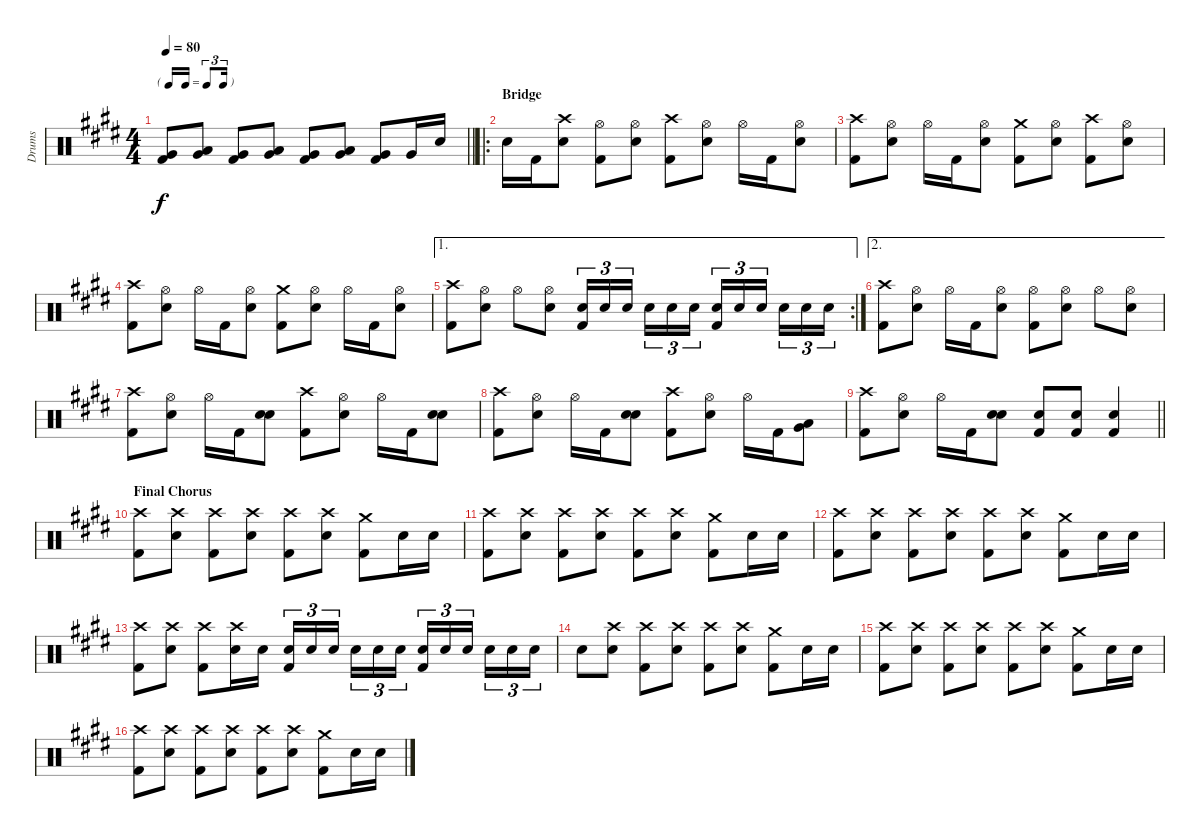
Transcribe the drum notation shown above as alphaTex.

\track ("Drums" "Drums") {instrument percussion}
\staff {score}
\articulation defaults
\ts (4 4)
\tf triplet16th
\tempo 80
\clef neutral
\barLineRight lightlight
\ks e
("Kick (hit) 2" "Very Low Tom (hit)").8{dy f} ("Low Tom (hit)" "Very Low Tom (hit)").8 ("Kick (hit) 2" "Very Low Tom (hit)").8 ("Low Tom (hit)" "Very Low Tom (hit)").8 ("Kick (hit) 2" "Very Low Tom (hit)").8 ("Low Tom (hit)" "Very Low Tom (hit)").8 ("Kick (hit) 2" "Very Low Tom (hit)").8 "Very Low Tom (hit)".16 "Electric Snare (hit)".16 |
\ro
\section ("" "Bridge")
"Electric Snare (hit)".16 "Kick (hit) 2".16 ("Crash high (hit)" "Electric Snare (hit)").8 ("Kick (hit) 2" "Hi-Hat (open)").8 ("Electric Snare (hit)" "Hi-Hat (open)").8 ("Kick (hit) 2" "Crash high (hit)").8 ("Electric Snare (hit)" "Hi-Hat (open)").8 "Hi-Hat (open)".16 "Kick (hit) 2".16 ("Electric Snare (hit)" "Hi-Hat (open)").8 |
("Kick (hit) 2" "Crash high (hit)").8 ("Electric Snare (hit)" "Hi-Hat (open)").8 "Hi-Hat (open)".16 "Kick (hit) 2".16 ("Electric Snare (hit)" "Hi-Hat (open)").8 ("Kick (hit) 2" "Crash medium (hit)").8 ("Electric Snare (hit)" "Hi-Hat (open)").8 ("Kick (hit) 2" "Crash high (hit)").8 ("Electric Snare (hit)" "Hi-Hat (open)").8 |
("Kick (hit) 2" "Crash high (hit)").8 ("Electric Snare (hit)" "Hi-Hat (open)").8 "Hi-Hat (open)".16 "Kick (hit) 2".16 ("Electric Snare (hit)" "Hi-Hat (open)").8 ("Kick (hit) 2" "Crash medium (hit)").8 ("Electric Snare (hit)" "Hi-Hat (open)").8 "Hi-Hat (open)".16 "Kick (hit) 2".16 ("Electric Snare (hit)" "Hi-Hat (open)").8 |
\ae 1
\rc 2
("Kick (hit) 2" "Crash high (hit)").8 ("Electric Snare (hit)" "Hi-Hat (open)").8 "Hi-Hat (open)".8 ("Electric Snare (hit)" "Hi-Hat (open)").8 ("Kick (hit) 2" "Electric Snare (hit)").16{tu (3 2)} "Electric Snare (hit)".16{tu (3 2)} "Electric Snare (hit)".16{tu (3 2) beam splitsecondary} "Electric Snare (hit)".16{tu (3 2)} "Electric Snare (hit)".16{tu (3 2)} "Electric Snare (hit)".16{tu (3 2)} ("Kick (hit) 2" "Electric Snare (hit)").16{tu (3 2)} "Electric Snare (hit)".16{tu (3 2)} "Electric Snare (hit)".16{tu (3 2) beam splitsecondary} "Electric Snare (hit)".16{tu (3 2)} "Electric Snare (hit)".16{tu (3 2)} "Electric Snare (hit)".16{tu (3 2)} |
\ae 2
("Kick (hit) 2" "Crash high (hit)").8 ("Electric Snare (hit)" "Hi-Hat (open)").8 "Hi-Hat (open)".16 "Kick (hit) 2".16 ("Electric Snare (hit)" "Hi-Hat (open)").8 ("Kick (hit) 2" "Hi-Hat (open)").8 ("Electric Snare (hit)" "Hi-Hat (open)").8 "Hi-Hat (open)".8 ("Electric Snare (hit)" "Hi-Hat (open)").8 |
("Kick (hit) 2" "Crash high (hit)").8 ("Electric Snare (hit)" "Hi-Hat (open)").8 "Hi-Hat (open)".16 "Kick (hit) 2".16 ("Electric Snare (hit)" "Electric Snare (hit)").8{bd 120} ("Kick (hit) 2" "Crash high (hit)").8 ("Electric Snare (hit)" "Hi-Hat (open)").8 "Hi-Hat (open)".16 "Kick (hit) 2".16 ("Electric Snare (hit)" "Electric Snare (hit)").8{bd 120} |
("Kick (hit) 2" "Crash high (hit)").8 ("Electric Snare (hit)" "Hi-Hat (open)").8 "Hi-Hat (open)".16 "Kick (hit) 2".16 ("Electric Snare (hit)" "Electric Snare (hit)").8{bd 120} ("Kick (hit) 2" "Crash high (hit)").8 ("Electric Snare (hit)" "Hi-Hat (open)").8 "Hi-Hat (open)".16 "Kick (hit) 2".16 ("Very Low Tom (hit)" "Low Tom (hit)").8 |
\barLineRight lightlight
("Kick (hit) 2" "Crash high (hit)").8 ("Electric Snare (hit)" "Hi-Hat (open)").8 "Hi-Hat (open)".16 "Kick (hit) 2".16 ("Electric Snare (hit)" "Electric Snare (hit)").8{bd 120} ("Kick (hit) 2" "Electric Snare (hit)").8 ("Kick (hit) 2" "Electric Snare (hit)").8 ("Kick (hit) 2" "Electric Snare (hit)").4 |
\section ("" "Final Chorus")
("Kick (hit) 2" "Crash high (hit)").8 ("Crash high (hit)" "Electric Snare (hit)").8 ("Kick (hit) 2" "Crash high (hit)").8 ("Crash high (hit)" "Electric Snare (hit)").8 ("Kick (hit) 2" "Crash high (hit)").8 ("Crash high (hit)" "Electric Snare (hit)").8 ("Kick (hit) 2" "Crash medium (hit)").8 "Electric Snare (hit)".16 "Electric Snare (hit)".16 |
("Kick (hit) 2" "Crash high (hit)").8 ("Crash high (hit)" "Electric Snare (hit)").8 ("Kick (hit) 2" "Crash high (hit)").8 ("Crash high (hit)" "Electric Snare (hit)").8 ("Kick (hit) 2" "Crash high (hit)").8 ("Crash high (hit)" "Electric Snare (hit)").8 ("Kick (hit) 2" "Crash medium (hit)").8 "Electric Snare (hit)".16 "Electric Snare (hit)".16 |
("Kick (hit) 2" "Crash high (hit)").8 ("Crash high (hit)" "Electric Snare (hit)").8 ("Kick (hit) 2" "Crash high (hit)").8 ("Crash high (hit)" "Electric Snare (hit)").8 ("Kick (hit) 2" "Crash high (hit)").8 ("Crash high (hit)" "Electric Snare (hit)").8 ("Kick (hit) 2" "Crash medium (hit)").8 "Electric Snare (hit)".16 "Electric Snare (hit)".16 |
("Kick (hit) 2" "Crash high (hit)").8 ("Crash high (hit)" "Electric Snare (hit)").8 ("Kick (hit) 2" "Crash high (hit)").8 ("Crash high (hit)" "Electric Snare (hit)").16 "Electric Snare (hit)".16 ("Kick (hit) 2" "Electric Snare (hit)").16{tu (3 2)} "Electric Snare (hit)".16{tu (3 2)} "Electric Snare (hit)".16{tu (3 2) beam splitsecondary} "Electric Snare (hit)".16{tu (3 2)} "Electric Snare (hit)".16{tu (3 2)} "Electric Snare (hit)".16{tu (3 2)} ("Kick (hit) 2" "Electric Snare (hit)").16{tu (3 2)} "Electric Snare (hit)".16{tu (3 2)} "Electric Snare (hit)".16{tu (3 2) beam splitsecondary} "Electric Snare (hit)".16{tu (3 2)} "Electric Snare (hit)".16{tu (3 2)} "Electric Snare (hit)".16{tu (3 2)} |
"Electric Snare (hit)".8 ("Crash high (hit)" "Electric Snare (hit)").8 ("Kick (hit) 2" "Crash high (hit)").8 ("Crash high (hit)" "Electric Snare (hit)").8 ("Kick (hit) 2" "Crash high (hit)").8 ("Crash high (hit)" "Electric Snare (hit)").8 ("Kick (hit) 2" "Crash medium (hit)").8 "Electric Snare (hit)".16 "Electric Snare (hit)".16 |
("Kick (hit) 2" "Crash high (hit)").8 ("Crash high (hit)" "Electric Snare (hit)").8 ("Kick (hit) 2" "Crash high (hit)").8 ("Crash high (hit)" "Electric Snare (hit)").8 ("Kick (hit) 2" "Crash high (hit)").8 ("Crash high (hit)" "Electric Snare (hit)").8 ("Kick (hit) 2" "Crash medium (hit)").8 "Electric Snare (hit)".16 "Electric Snare (hit)".16 |
("Kick (hit) 2" "Crash high (hit)").8 ("Crash high (hit)" "Electric Snare (hit)").8 ("Kick (hit) 2" "Crash high (hit)").8 ("Crash high (hit)" "Electric Snare (hit)").8 ("Kick (hit) 2" "Crash high (hit)").8 ("Crash high (hit)" "Electric Snare (hit)").8 ("Kick (hit) 2" "Crash medium (hit)").8 "Electric Snare (hit)".16 "Electric Snare (hit)".16
